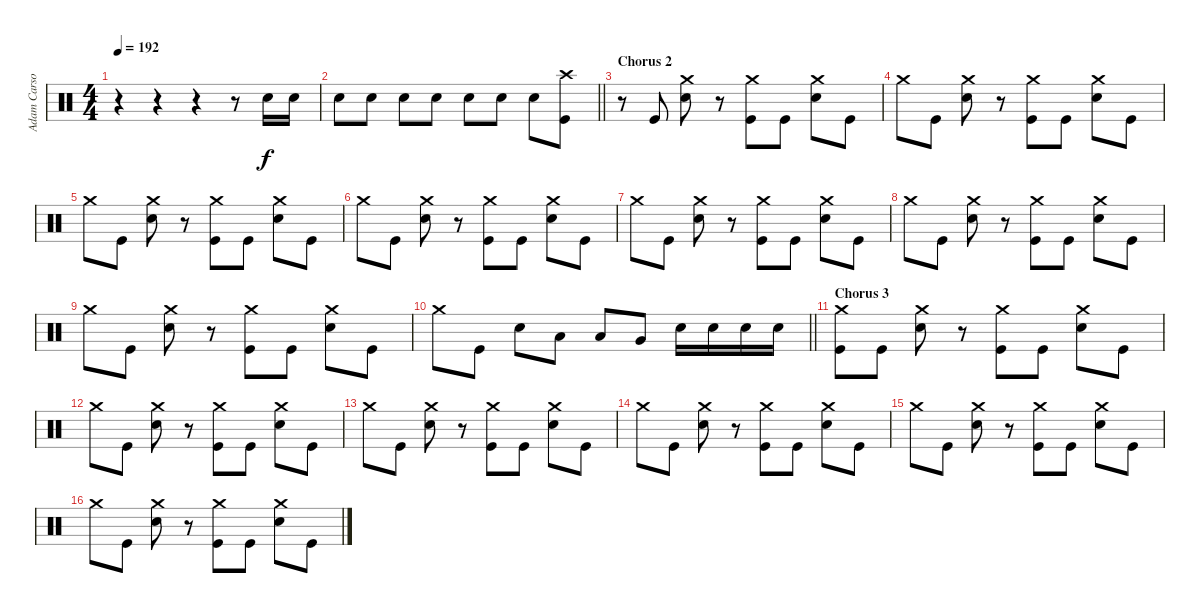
\track ("Adam Carson" "Adam Carso") {instrument percussion}
\staff {score}
\articulation defaults
\ts (4 4)
\tempo 192
\clef neutral
\ks c
r.4{dy f} r.4 r.4 r.8 "Electric Snare (hit)".16 "Electric Snare (hit)".16 |
\barLineRight lightlight "Electric Snare (hit)".8 "Electric Snare (hit)".8 "Electric Snare (hit)".8 "Electric Snare (hit)".8 "Electric Snare (hit)".8 "Electric Snare (hit)".8 "Electric Snare (hit)".8
("Crash high (hit)" "Kick (hit)").8 |
\section ("" "Chorus 2")
r.8 "Kick (hit)".8 ("Crash medium (hit)" "Electric Snare (hit)").8 r.8 ("Crash medium (hit)" "Kick (hit)").8 "Kick (hit)".8 ("Crash medium (hit)" "Electric Snare (hit)").8 "Kick (hit)".8 |
"Crash medium (hit)".8 "Kick (hit)".8 ("Crash medium (hit)" "Electric Snare (hit)").8 r.8 ("Crash medium (hit)" "Kick (hit)").8 "Kick (hit)".8 ("Crash medium (hit)" "Electric Snare (hit)").8 "Kick (hit)".8 |
"Crash medium (hit)".8 "Kick (hit)".8 ("Crash medium (hit)" "Electric Snare (hit)").8 r.8 ("Crash medium (hit)" "Kick (hit)").8 "Kick (hit)".8 ("Crash medium (hit)" "Electric Snare (hit)").8 "Kick (hit)".8 |
"Crash medium (hit)".8 "Kick (hit)".8 ("Crash medium (hit)" "Electric Snare (hit)").8 r.8 ("Crash medium (hit)" "Kick (hit)").8 "Kick (hit)".8 ("Crash medium (hit)" "Electric Snare (hit)").8 "Kick (hit)".8 |
"Crash medium (hit)".8 "Kick (hit)".8 ("Crash medium (hit)" "Electric Snare (hit)").8 r.8 ("Crash medium (hit)" "Kick (hit)").8 "Kick (hit)".8 ("Crash medium (hit)" "Electric Snare (hit)").8 "Kick (hit)".8 |
"Crash medium (hit)".8 "Kick (hit)".8 ("Crash medium (hit)" "Electric Snare (hit)").8 r.8 ("Crash medium (hit)" "Kick (hit)").8 "Kick (hit)".8 ("Crash medium (hit)" "Electric Snare (hit)").8 "Kick (hit)".8 |
"Crash medium (hit)".8 "Kick (hit)".8 ("Crash medium (hit)" "Electric Snare (hit)").8 r.8 ("Crash medium (hit)" "Kick (hit)").8 "Kick (hit)".8 ("Crash medium (hit)" "Electric Snare (hit)").8 "Kick (hit)".8 |
\barLineRight lightlight "Crash medium (hit)".8 "Kick (hit)".8 "Electric Snare (hit)".8 "Low Tom (hit)".8 "Low Tom (hit)".8 "Very Low Tom (hit)".8 "Electric Snare (hit)".16 "Electric Snare (hit)".16 "Electric Snare (hit)".16 "Electric Snare (hit)".16
|
\section ("" "Chorus 3 ")
("Crash medium (hit)" "Kick (hit)").8 "Kick (hit)".8 ("Crash medium (hit)" "Electric Snare (hit)").8 r.8 ("Crash medium (hit)" "Kick (hit)").8 "Kick (hit)".8 ("Crash medium (hit)" "Electric Snare (hit)").8 "Kick (hit)".8 |
"Crash medium (hit)".8 "Kick (hit)".8 ("Crash medium (hit)" "Electric Snare (hit)").8 r.8 ("Crash medium (hit)" "Kick (hit)").8 "Kick (hit)".8 ("Crash medium (hit)" "Electric Snare (hit)").8 "Kick (hit)".8 |
"Crash medium (hit)".8 "Kick (hit)".8 ("Crash medium (hit)" "Electric Snare (hit)").8 r.8 ("Crash medium (hit)" "Kick (hit)").8 "Kick (hit)".8 ("Crash medium (hit)" "Electric Snare (hit)").8 "Kick (hit)".8 |
"Crash medium (hit)".8 "Kick (hit)".8 ("Crash medium (hit)" "Electric Snare (hit)").8 r.8 ("Crash medium (hit)" "Kick (hit)").8 "Kick (hit)".8 ("Crash medium (hit)" "Electric Snare (hit)").8 "Kick (hit)".8 |
"Crash medium (hit)".8 "Kick (hit)".8 ("Crash medium (hit)" "Electric Snare (hit)").8 r.8 ("Crash medium (hit)" "Kick (hit)").8 "Kick (hit)".8 ("Crash medium (hit)" "Electric Snare (hit)").8 "Kick (hit)".8 |
"Crash medium (hit)".8 "Kick (hit)".8 ("Crash medium (hit)" "Electric Snare (hit)").8 r.8 ("Crash medium (hit)" "Kick (hit)").8 "Kick (hit)".8 ("Crash medium (hit)" "Electric Snare (hit)").8 "Kick (hit)".8
